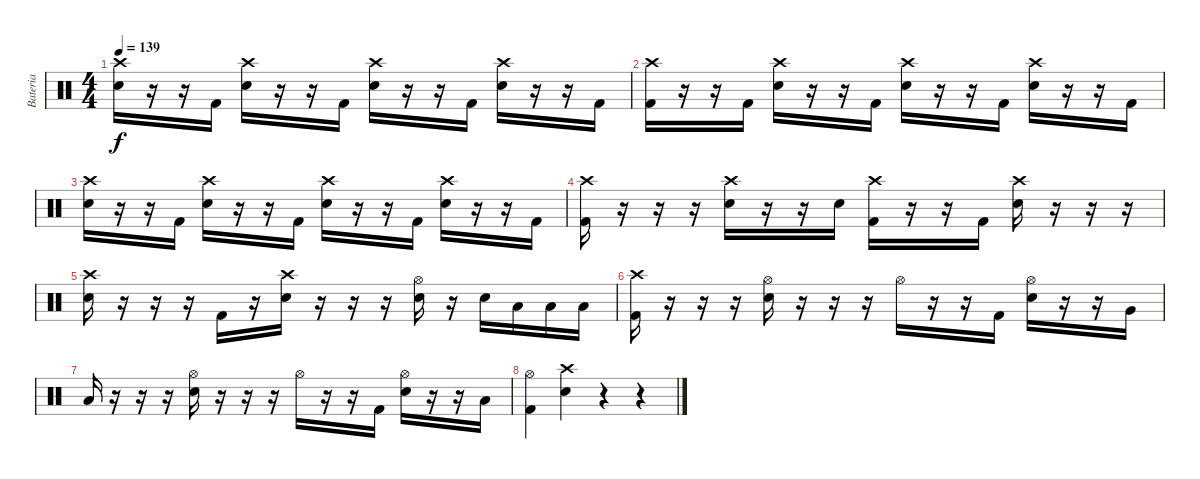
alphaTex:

\track ("Bateria" "Bateria") {instrument percussion}
\staff {score}
\articulation defaults
\ts (4 4)
\tempo 139
\clef neutral
\ks c
("Crash high (hit)" "Electric Snare (hit)").16{dy f} r.16 r.16 "Kick (hit) 2".16 ("Crash high (hit)" "Electric Snare (hit)").16 r.16 r.16 "Kick (hit) 2".16 ("Crash high (hit)" "Electric Snare (hit)").16 r.16 r.16 "Kick (hit) 2".16 ("Crash high (hit)" "Electric Snare (hit)").16 r.16 r.16 "Kick (hit) 2".16 |
("Crash high (hit)" "Kick (hit) 2").16 r.16 r.16 "Kick (hit) 2".16 ("Crash high (hit)" "Electric Snare (hit)").16 r.16 r.16 "Kick (hit) 2".16 ("Crash high (hit)" "Electric Snare (hit)").16 r.16 r.16 "Kick (hit) 2".16 ("Crash high (hit)" "Electric Snare (hit)").16 r.16 r.16 "Kick (hit) 2".16 |
("Crash high (hit)" "Electric Snare (hit)").16 r.16 r.16 "Kick (hit) 2".16 ("Crash high (hit)" "Electric Snare (hit)").16 r.16 r.16 "Kick (hit) 2".16 ("Crash high (hit)" "Electric Snare (hit)").16 r.16 r.16 "Kick (hit) 2".16 ("Crash high (hit)" "Electric Snare (hit)").16 r.16 r.16 "Kick (hit) 2".16 |
("Crash high (hit)" "Kick (hit) 2").16 r.16 r.16 r.16 ("Crash high (hit)" "Electric Snare (hit)").16 r.16 r.16 "Electric Snare (hit)".16 ("Crash high (hit)" "Kick (hit) 2").16 r.16 r.16 "Kick (hit) 2".16 ("Crash high (hit)" "Electric Snare (hit)").16 r.16 r.16 r.16 |
("Crash high (hit)" "Electric Snare (hit)").16 r.16 r.16 r.16 "Kick (hit) 2".16 r.16 ("Crash high (hit)" "Electric Snare (hit)").16 r.16 r.16 r.16 ("Hi-Hat (open)" "Electric Snare (hit)").16 r.16 "Electric Snare (hit)".16 "Low Tom (hit)".16 "Low Tom (hit)".16 "Low Tom (hit)".16 |
("Crash high (hit)" "Kick (hit) 2").16 r.16 r.16 r.16 ("Hi-Hat (open)" "Electric Snare (hit)").16 r.16 r.16 r.16 "Hi-Hat (open)".16 r.16 r.16 "Kick (hit) 2".16 ("Hi-Hat (open)" "Electric Snare (hit)").16 r.16 r.16 "Very Low Tom (hit)".16 |
"Low Tom (hit)".16 r.16 r.16 r.16 ("Hi-Hat (open)" "Electric Snare (hit)").16 r.16 r.16 r.16 "Hi-Hat (open)".16 r.16 r.16 "Kick (hit) 2".16 ("Hi-Hat (open)" "Electric Snare (hit)").16 r.16 r.16 "Low Tom (hit)".16 |
("Hi-Hat (open)" "Kick (hit) 2").4 ("Crash high (hit)" "Electric Snare (hit)").4 r.4 r.4
